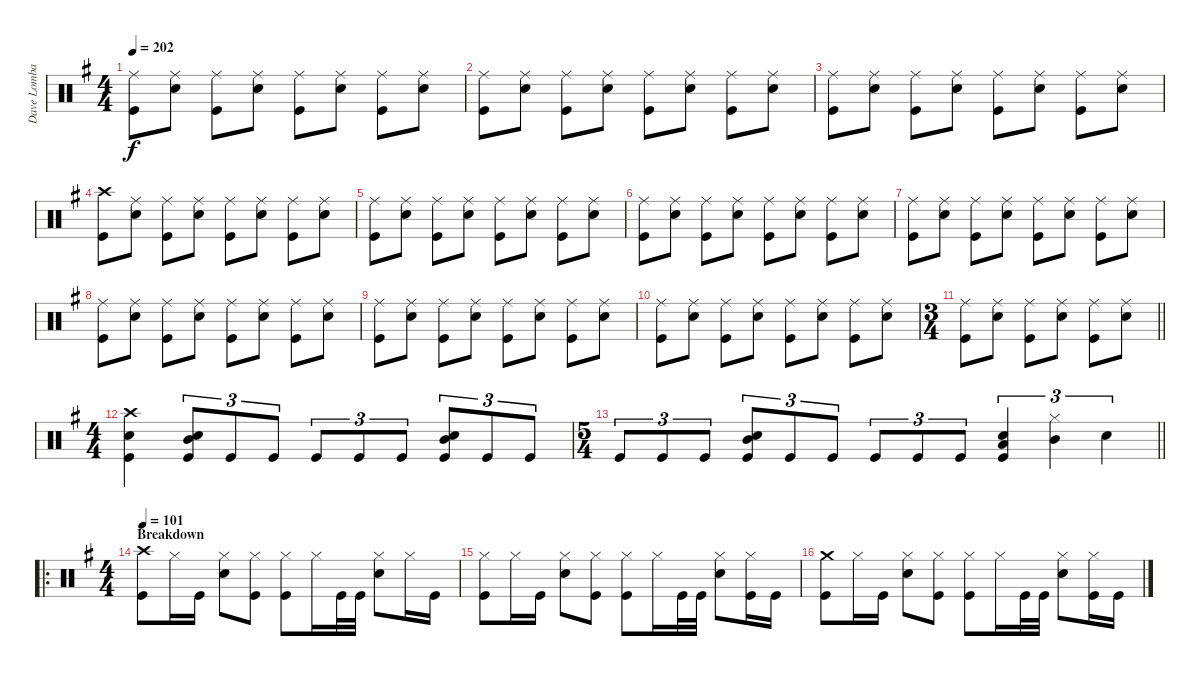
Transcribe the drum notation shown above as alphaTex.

\track ("Dave Lombardo" "Dave Lomba") {instrument percussion}
\staff {score}
\articulation defaults
\ts (4 4)
\tempo 202
\clef neutral
\ks g
("Ride (middle)" "Kick (hit)").8{dy f} ("Ride (middle)" "Snare (hit) 2").8 ("Ride (middle)" "Kick (hit)").8 ("Ride (middle)" "Snare (hit) 2").8 ("Ride (middle)" "Kick (hit)").8 ("Ride (middle)" "Snare (hit) 2").8 ("Ride (middle)" "Kick (hit)").8 ("Ride (middle)" "Snare (hit) 2").8 |
("Ride (middle)" "Kick (hit)").8 ("Ride (middle)" "Snare (hit) 2").8 ("Ride (middle)" "Kick (hit)").8 ("Ride (middle)" "Snare (hit) 2").8 ("Ride (middle)" "Kick (hit)").8 ("Ride (middle)" "Snare (hit) 2").8 ("Ride (middle)" "Kick (hit)").8 ("Ride (middle)" "Snare (hit) 2").8 |
("Ride (middle)" "Kick (hit)").8 ("Ride (middle)" "Snare (hit) 2").8 ("Ride (middle)" "Kick (hit)").8 ("Ride (middle)" "Snare (hit) 2").8 ("Ride (middle)" "Kick (hit)").8 ("Ride (middle)" "Snare (hit) 2").8 ("Ride (middle)" "Kick (hit)").8 ("Ride (middle)" "Snare (hit) 2").8 |
("Crash high (hit)" "Kick (hit)").8 ("Ride (middle)" "Snare (hit) 2").8 ("Ride (middle)" "Kick (hit)").8 ("Ride (middle)" "Snare (hit) 2").8 ("Ride (middle)" "Kick (hit)").8 ("Ride (middle)" "Snare (hit) 2").8 ("Ride (middle)" "Kick (hit)").8 ("Ride (middle)" "Snare (hit) 2").8 |
("Ride (middle)" "Kick (hit)").8 ("Ride (middle)" "Snare (hit) 2").8 ("Ride (middle)" "Kick (hit)").8 ("Ride (middle)" "Snare (hit) 2").8 ("Ride (middle)" "Kick (hit)").8 ("Ride (middle)" "Snare (hit) 2").8 ("Ride (middle)" "Kick (hit)").8 ("Ride (middle)" "Snare (hit) 2").8 |
("Ride (middle)" "Kick (hit)").8 ("Ride (middle)" "Snare (hit) 2").8 ("Ride (middle)" "Kick (hit)").8 ("Ride (middle)" "Snare (hit) 2").8 ("Ride (middle)" "Kick (hit)").8 ("Ride (middle)" "Snare (hit) 2").8 ("Ride (middle)" "Kick (hit)").8 ("Ride (middle)" "Snare (hit) 2").8 |
("Ride (middle)" "Kick (hit)").8 ("Ride (middle)" "Snare (hit) 2").8 ("Ride (middle)" "Kick (hit)").8 ("Ride (middle)" "Snare (hit) 2").8 ("Ride (middle)" "Kick (hit)").8 ("Ride (middle)" "Snare (hit) 2").8 ("Ride (middle)" "Kick (hit)").8 ("Ride (middle)" "Snare (hit) 2").8 |
("Ride (middle)" "Kick (hit)").8 ("Ride (middle)" "Snare (hit) 2").8 ("Ride (middle)" "Kick (hit)").8 ("Ride (middle)" "Snare (hit) 2").8 ("Ride (middle)" "Kick (hit)").8 ("Ride (middle)" "Snare (hit) 2").8 ("Ride (middle)" "Kick (hit)").8 ("Ride (middle)" "Snare (hit) 2").8 |
("Ride (middle)" "Kick (hit)").8 ("Ride (middle)" "Snare (hit) 2").8 ("Ride (middle)" "Kick (hit)").8 ("Ride (middle)" "Snare (hit) 2").8 ("Ride (middle)" "Kick (hit)").8 ("Ride (middle)" "Snare (hit) 2").8 ("Ride (middle)" "Kick (hit)").8 ("Ride (middle)" "Snare (hit) 2").8 |
("Ride (middle)" "Kick (hit)").8 ("Ride (middle)" "Snare (hit) 2").8 ("Ride (middle)" "Kick (hit)").8 ("Ride (middle)" "Snare (hit) 2").8 ("Ride (middle)" "Kick (hit)").8 ("Ride (middle)" "Snare (hit) 2").8 ("Ride (middle)" "Kick (hit)").8 ("Ride (middle)" "Snare (hit) 2").8 |
\ts (3 4)
\barLineRight lightlight
("Ride (middle)" "Kick (hit)").8 ("Ride (middle)" "Snare (hit) 2").8 ("Ride (middle)" "Kick (hit)").8 ("Ride (middle)" "Snare (hit) 2").8 ("Ride (middle)" "Kick (hit)").8 ("Ride (middle)" "Snare (hit) 2").8 |
\ts (4 4)
("Crash high (hit)" "Snare (hit) 2" "Kick (hit)").4 ("Mid Tom (hit)" "Snare (hit) 2" "Kick (hit)").8{tu (3 2)} "Kick (hit)".8{tu (3 2)} "Kick (hit)".8{tu (3 2)} "Kick (hit)".8{tu (3 2)} "Kick (hit)".8{tu (3 2)} "Kick (hit)".8{tu (3 2)} ("Mid Tom (hit)" "Snare (hit) 2" "Kick (hit)").8{tu (3 2)} "Kick (hit)".8{tu (3 2)} "Kick (hit)".8{tu (3 2)} |
\ts (5 4)
\barLineRight lightlight "Kick (hit)".8{tu (3 2)} "Kick (hit)".8{tu (3 2)} "Kick (hit)".8{tu (3 2)}
("Mid Tom (hit)" "Snare (hit) 2" "Kick (hit)").8{tu (3 2)} "Kick (hit)".8{tu (3 2)} "Kick (hit)".8{tu (3 2)} "Kick (hit)".8{tu (3 2)} "Kick (hit)".8{tu (3 2)} "Kick (hit)".8{tu (3 2)} ("Low Tom (hit)" "Snare (hit) 2" "Kick (hit)").4{tu (3 2)} ("Hi-Hat (closed)" "Mid Tom (hit)").4{tu (3 2)} "Snare (hit) 2".4{tu (3 2)} |
\ro
\ts (4 4)
\section ("" "Breakdown")
\tempo 101
("Crash high (hit)" "Kick (hit)").8 "Hi-Hat (closed)".16 "Kick (hit)".16 ("Hi-Hat (closed)" "Snare (hit) 2").8 ("Hi-Hat (closed)" "Kick (hit)").8 ("Hi-Hat (closed)" "Kick (hit)").8 "Hi-Hat (closed)".16 "Kick (hit)".32 "Kick (hit)".32 ("Hi-Hat (closed)" "Snare (hit) 2").8 "Hi-Hat (closed)".16 "Kick (hit)".16 |
("Hi-Hat (closed)" "Kick (hit)").8 "Hi-Hat (closed)".16 "Kick (hit)".16 ("Hi-Hat (closed)" "Snare (hit) 2").8 ("Hi-Hat (closed)" "Kick (hit)").8 ("Hi-Hat (closed)" "Kick (hit)").8 "Hi-Hat (closed)".16 "Kick (hit)".32 "Kick (hit)".32 ("Hi-Hat (closed)" "Snare (hit) 2").8 ("Hi-Hat (closed)" "Kick (hit)").16 "Kick (hit)".16 |
("Crash medium (hit)" "Kick (hit)").8 "Hi-Hat (closed)".16 "Kick (hit)".16 ("Hi-Hat (closed)" "Snare (hit) 2").8 ("Hi-Hat (closed)" "Kick (hit)").8 ("Hi-Hat (closed)" "Kick (hit)").8 "Hi-Hat (closed)".16 "Kick (hit)".32 "Kick (hit)".32 ("Hi-Hat (closed)" "Snare (hit) 2").8 ("Hi-Hat (closed)" "Kick (hit)").16 "Kick (hit)".16
